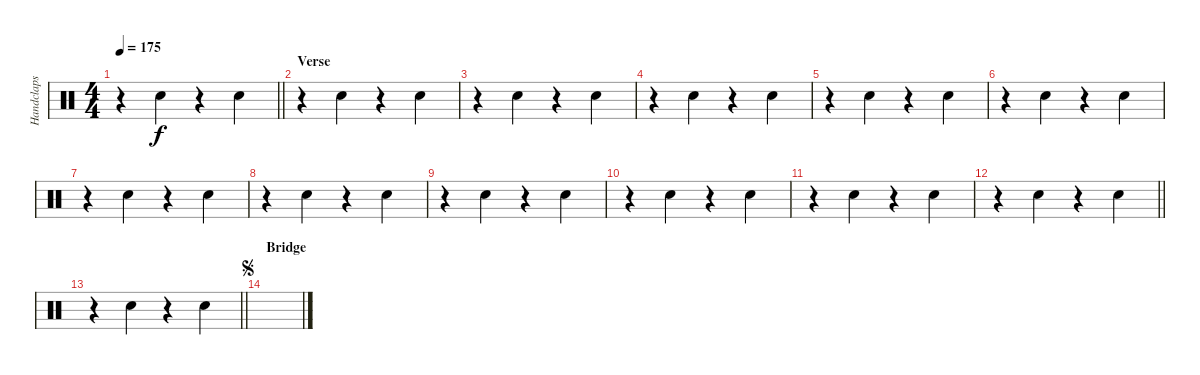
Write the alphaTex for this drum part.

\track ("Handclaps" "Handclaps") {instrument percussion}
\staff {score}
\articulation defaults
\ts (4 4)
\tempo 175
\clef neutral
\barLineRight lightlight
\ks c
r.4{dy f} "Hand Clap (hit)".4 r.4 "Hand Clap (hit)".4 |
\section ("" "Verse")
r.4 "Hand Clap (hit)".4 r.4 "Hand Clap (hit)".4 |
r.4 "Hand Clap (hit)".4 r.4 "Hand Clap (hit)".4 |
r.4 "Hand Clap (hit)".4 r.4 "Hand Clap (hit)".4 |
r.4 "Hand Clap (hit)".4 r.4 "Hand Clap (hit)".4 |
r.4 "Hand Clap (hit)".4 r.4 "Hand Clap (hit)".4 |
r.4 "Hand Clap (hit)".4 r.4 "Hand Clap (hit)".4 |
r.4 "Hand Clap (hit)".4 r.4 "Hand Clap (hit)".4 |
r.4 "Hand Clap (hit)".4 r.4 "Hand Clap (hit)".4 |
r.4 "Hand Clap (hit)".4 r.4 "Hand Clap (hit)".4 |
r.4 "Hand Clap (hit)".4 r.4 "Hand Clap (hit)".4 |
\barLineRight lightlight
r.4 "Hand Clap (hit)".4 r.4 "Hand Clap (hit)".4 |
\barLineRight lightlight
r.4 "Hand Clap (hit)".4 r.4 "Hand Clap (hit)".4 |
\section ("" "Bridge")
\jump segno
